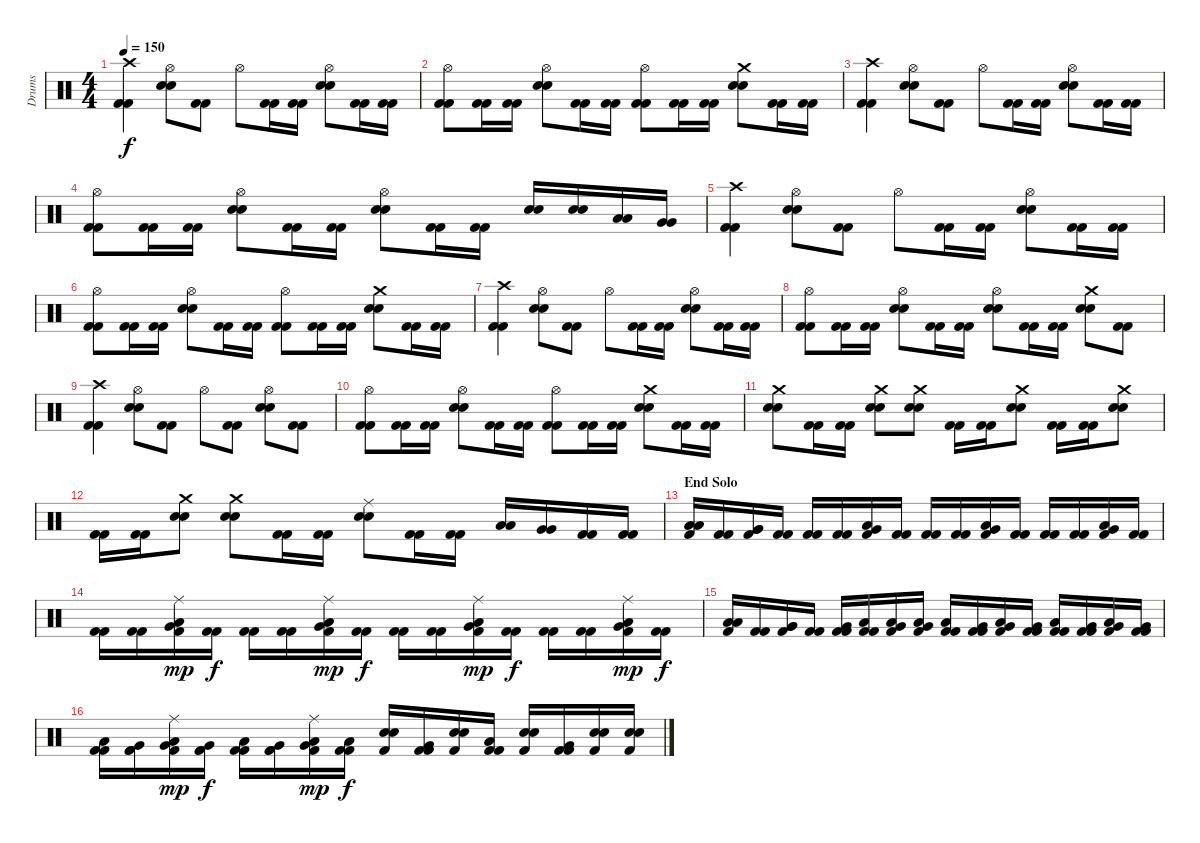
\track ("Drums" "Drums") {instrument percussion}
\staff {score}
\articulation defaults
\ts (4 4)
\tempo 150
\clef neutral
\ks c
("Crash high (hit)" "Kick (hit) 2" "Kick (hit) 2").4{dy f} ("Hi-Hat (open)" "Snare (hit) 2" "Snare (hit) 2").8 ("Kick (hit) 2" "Kick (hit) 2").8 "Hi-Hat (open)".8 ("Kick (hit) 2" "Kick (hit) 2").16 ("Kick (hit) 2" "Kick (hit) 2").16 ("Hi-Hat (open)" "Snare (hit) 2" "Snare (hit) 2").8 ("Kick (hit) 2" "Kick (hit) 2").16 ("Kick (hit) 2" "Kick (hit) 2").16 |
("Hi-Hat (open)" "Kick (hit) 2" "Kick (hit) 2").8 ("Kick (hit) 2" "Kick (hit) 2").16 ("Kick (hit) 2" "Kick (hit) 2").16 ("Hi-Hat (open)" "Snare (hit) 2" "Snare (hit) 2").8 ("Kick (hit) 2" "Kick (hit) 2").16 ("Kick (hit) 2" "Kick (hit) 2").16 ("Hi-Hat (open)" "Kick (hit) 2" "Kick (hit) 2").8 ("Kick (hit) 2" "Kick (hit) 2").16 ("Kick (hit) 2" "Kick (hit) 2").16 ("Crash medium (hit)" "Snare (hit) 2" "Snare (hit) 2").8 ("Kick (hit) 2" "Kick (hit) 2").16 ("Kick (hit) 2" "Kick (hit) 2").16 |
("Crash high (hit)" "Kick (hit) 2" "Kick (hit) 2").4 ("Hi-Hat (open)" "Snare (hit) 2" "Snare (hit) 2").8 ("Kick (hit) 2" "Kick (hit) 2").8 "Hi-Hat (open)".8 ("Kick (hit) 2" "Kick (hit) 2").16 ("Kick (hit) 2" "Kick (hit) 2").16 ("Hi-Hat (open)" "Snare (hit) 2" "Snare (hit) 2").8 ("Kick (hit) 2" "Kick (hit) 2").16 ("Kick (hit) 2" "Kick (hit) 2").16 |
("Hi-Hat (open)" "Kick (hit) 2" "Kick (hit) 2").8 ("Kick (hit) 2" "Kick (hit) 2").16 ("Kick (hit) 2" "Kick (hit) 2").16 ("Hi-Hat (open)" "Snare (hit) 2" "Snare (hit) 2").8 ("Kick (hit) 2" "Kick (hit) 2").16 ("Kick (hit) 2" "Kick (hit) 2").16 ("Hi-Hat (open)" "Snare (hit) 2" "Snare (hit) 2").8 ("Kick (hit) 2" "Kick (hit) 2").16 ("Kick (hit) 2" "Kick (hit) 2").16 ("Snare (hit) 2" "Snare (hit) 2").16 ("Snare (hit) 2" "Snare (hit) 2").16 ("Low Tom (hit)" "Low Tom (hit)").16 ("Very Low Tom (hit)" "Very Low Tom (hit)").16 |
("Crash high (hit)" "Kick (hit) 2" "Kick (hit) 2").4 ("Hi-Hat (open)" "Snare (hit) 2" "Snare (hit) 2").8 ("Kick (hit) 2" "Kick (hit) 2").8 "Hi-Hat (open)".8 ("Kick (hit) 2" "Kick (hit) 2").16 ("Kick (hit) 2" "Kick (hit) 2").16 ("Hi-Hat (open)" "Snare (hit) 2" "Snare (hit) 2").8 ("Kick (hit) 2" "Kick (hit) 2").16 ("Kick (hit) 2" "Kick (hit) 2").16 |
("Hi-Hat (open)" "Kick (hit) 2" "Kick (hit) 2").8 ("Kick (hit) 2" "Kick (hit) 2").16 ("Kick (hit) 2" "Kick (hit) 2").16 ("Hi-Hat (open)" "Snare (hit) 2" "Snare (hit) 2").8 ("Kick (hit) 2" "Kick (hit) 2").16 ("Kick (hit) 2" "Kick (hit) 2").16 ("Hi-Hat (open)" "Kick (hit) 2" "Kick (hit) 2").8 ("Kick (hit) 2" "Kick (hit) 2").16 ("Kick (hit) 2" "Kick (hit) 2").16 ("Crash medium (hit)" "Snare (hit) 2" "Snare (hit) 2").8 ("Kick (hit) 2" "Kick (hit) 2").16 ("Kick (hit) 2" "Kick (hit) 2").16 |
("Crash high (hit)" "Kick (hit) 2" "Kick (hit) 2").4 ("Hi-Hat (open)" "Snare (hit) 2" "Snare (hit) 2").8 ("Kick (hit) 2" "Kick (hit) 2").8 "Hi-Hat (open)".8 ("Kick (hit) 2" "Kick (hit) 2").16 ("Kick (hit) 2" "Kick (hit) 2").16 ("Hi-Hat (open)" "Snare (hit) 2" "Snare (hit) 2").8 ("Kick (hit) 2" "Kick (hit) 2").16 ("Kick (hit) 2" "Kick (hit) 2").16 |
("Hi-Hat (open)" "Kick (hit) 2" "Kick (hit) 2").8 ("Kick (hit) 2" "Kick (hit) 2").16 ("Kick (hit) 2" "Kick (hit) 2").16 ("Hi-Hat (open)" "Snare (hit) 2" "Snare (hit) 2").8 ("Kick (hit) 2" "Kick (hit) 2").16 ("Kick (hit) 2" "Kick (hit) 2").16 ("Hi-Hat (open)" "Snare (hit) 2" "Snare (hit) 2").8 ("Kick (hit) 2" "Kick (hit) 2").16 ("Kick (hit) 2" "Kick (hit) 2").16 ("Crash medium (hit)" "Snare (hit) 2" "Snare (hit) 2").8 ("Kick (hit) 2" "Kick (hit) 2").8 |
("Crash high (hit)" "Kick (hit) 2" "Kick (hit) 2").4 ("Hi-Hat (open)" "Snare (hit) 2" "Snare (hit) 2").8 ("Kick (hit) 2" "Kick (hit) 2").8 "Hi-Hat (open)".8 ("Kick (hit) 2" "Kick (hit) 2").8 ("Hi-Hat (open)" "Snare (hit) 2" "Snare (hit) 2").8 ("Kick (hit) 2" "Kick (hit) 2").8 |
("Hi-Hat (open)" "Kick (hit) 2" "Kick (hit) 2").8 ("Kick (hit) 2" "Kick (hit) 2").16 ("Kick (hit) 2" "Kick (hit) 2").16 ("Hi-Hat (open)" "Snare (hit) 2" "Snare (hit) 2").8 ("Kick (hit) 2" "Kick (hit) 2").16 ("Kick (hit) 2" "Kick (hit) 2").16 ("Hi-Hat (open)" "Kick (hit) 2" "Kick (hit) 2").8 ("Kick (hit) 2" "Kick (hit) 2").16 ("Kick (hit) 2" "Kick (hit) 2").16 ("Crash medium (hit)" "Snare (hit) 2" "Snare (hit) 2").8 ("Kick (hit) 2" "Kick (hit) 2").16 ("Kick (hit) 2" "Kick (hit) 2").16 |
("Crash medium (hit)" "Snare (hit) 2" "Snare (hit) 2").8 ("Kick (hit) 2" "Kick (hit) 2").16 ("Kick (hit) 2" "Kick (hit) 2").16 ("Crash medium (hit)" "Snare (hit) 2" "Snare (hit) 2").8 ("Crash medium (hit)" "Snare (hit) 2" "Snare (hit) 2").8 ("Kick (hit) 2" "Kick (hit) 2").16 ("Kick (hit) 2" "Kick (hit) 2").16 ("Crash medium (hit)" "Snare (hit) 2" "Snare (hit) 2").8 ("Kick (hit) 2" "Kick (hit) 2").16 ("Kick (hit) 2" "Kick (hit) 2").16 ("Crash medium (hit)" "Snare (hit) 2" "Snare (hit) 2").8 |
("Kick (hit) 2" "Kick (hit) 2").16 ("Kick (hit) 2" "Kick (hit) 2").16 ("Crash medium (hit)" "Snare (hit) 2" "Snare (hit) 2").8 ("Crash medium (hit)" "Snare (hit) 2" "Snare (hit) 2").8 ("Kick (hit) 2" "Kick (hit) 2").16 ("Kick (hit) 2" "Kick (hit) 2").16 ("Ride (middle)" "Snare (hit) 2" "Snare (hit) 2").8 ("Kick (hit) 2" "Kick (hit) 2").16 ("Kick (hit) 2" "Kick (hit) 2").16 ("Low Tom (hit)" "Low Tom (hit)").16 ("Very Low Tom (hit)" "Very Low Tom (hit)").16 ("Kick (hit) 2" "Kick (hit) 2").16 ("Kick (hit) 2" "Kick (hit) 2").16 |
\section ("" "End Solo")
("Low Tom (hit)" "Low Tom (hit)" "Kick (hit) 2").16 ("Kick (hit) 2" "Kick (hit) 2").16 ("Very Low Tom (hit)" "Very Low Tom (hit)" "Kick (hit) 2").16 ("Kick (hit) 2" "Kick (hit) 2").16 ("Kick (hit) 2" "Kick (hit) 2").16 ("Kick (hit) 2" "Kick (hit) 2").16 ("Low Tom (hit)" "Very Low Tom (hit)" "Kick (hit) 2").16 ("Kick (hit) 2" "Kick (hit) 2").16 ("Kick (hit) 2" "Kick (hit) 2").16 ("Kick (hit) 2" "Kick (hit) 2").16 ("Low Tom (hit)" "Very Low Tom (hit)" "Kick (hit) 2").16 ("Kick (hit) 2" "Kick (hit) 2").16 ("Kick (hit) 2" "Kick (hit) 2").16 ("Kick (hit) 2" "Kick (hit) 2").16 ("Low Tom (hit)" "Very Low Tom (hit)" "Kick (hit) 2").16 ("Kick (hit) 2" "Kick (hit) 2").16 |
("Kick (hit) 2" "Kick (hit) 2").16 ("Kick (hit) 2" "Kick (hit) 2").16 ("Ride (middle)" "Low Tom (hit)" "Very Low Tom (hit)" "Kick (hit) 2").16{dy mp} ("Kick (hit) 2" "Kick (hit) 2").16{dy f} ("Kick (hit) 2" "Kick (hit) 2").16 ("Kick (hit) 2" "Kick (hit) 2").16 ("Ride (middle)" "Low Tom (hit)" "Very Low Tom (hit)" "Kick (hit) 2").16{dy mp} ("Kick (hit) 2" "Kick (hit) 2").16{dy f} ("Kick (hit) 2" "Kick (hit) 2").16 ("Kick (hit) 2" "Kick (hit) 2").16 ("Ride (middle)" "Low Tom (hit)" "Very Low Tom (hit)" "Kick (hit) 2").16{dy mp} ("Kick (hit) 2" "Kick (hit) 2").16{dy f} ("Kick (hit) 2" "Kick (hit) 2").16 ("Kick (hit) 2" "Kick (hit) 2").16 ("Ride (middle)" "Low Tom (hit)" "Very Low Tom (hit)" "Kick (hit) 2").16{dy mp} ("Kick (hit) 2" "Kick (hit) 2").16{dy f} |
("Low Tom (hit)" "Low Tom (hit)" "Kick (hit) 2").16 ("Kick (hit) 2" "Kick (hit) 2").16 ("Very Low Tom (hit)" "Very Low Tom (hit)" "Kick (hit) 2").16 ("Kick (hit) 2" "Kick (hit) 2").16 ("Very Low Tom (hit)" "Kick (hit) 2" "Kick (hit) 2").16 ("Low Tom (hit)" "Kick (hit) 2" "Kick (hit) 2").16 ("Low Tom (hit)" "Very Low Tom (hit)" "Kick (hit) 2").16 ("Very Low Tom (hit)" "Low Tom (hit)" "Kick (hit) 2").16 ("Low Tom (hit)" "Kick (hit) 2" "Kick (hit) 2").16 ("Very Low Tom (hit)" "Kick (hit) 2" "Kick (hit) 2").16 ("Low Tom (hit)" "Very Low Tom (hit)" "Kick (hit) 2").16 ("Very Low Tom (hit)" "Kick (hit) 2" "Kick (hit) 2").16 ("Low Tom (hit)" "Kick (hit) 2" "Kick (hit) 2").16 ("Very Low Tom (hit)" "Kick (hit) 2" "Kick (hit) 2").16 ("Low Tom (hit)" "Very Low Tom (hit)" "Kick (hit) 2").16 ("Very Low Tom (hit)" "Kick (hit) 2" "Kick (hit) 2").16 |
("Low Tom (hit)" "Kick (hit) 2" "Kick (hit) 2").16 ("Very Low Tom (hit)" "Kick (hit) 2" "Kick (hit) 2").16 ("Ride (middle)" "Low Tom (hit)" "Very Low Tom (hit)" "Kick (hit) 2").16{dy mp} ("Very Low Tom (hit)" "Kick (hit) 2" "Kick (hit) 2").16{dy f} ("Low Tom (hit)" "Kick (hit) 2" "Kick (hit) 2").16 ("Very Low Tom (hit)" "Kick (hit) 2" "Kick (hit) 2").16 ("Ride (middle)" "Low Tom (hit)" "Very Low Tom (hit)" "Kick (hit) 2").16{dy mp} ("Low Tom (hit)" "Kick (hit) 2" "Kick (hit) 2").16{dy f} ("Snare (hit) 2" "Snare (hit) 2" "Kick (hit) 2").16 ("Very Low Tom (hit)" "Kick (hit) 2" "Kick (hit) 2").16 ("Snare (hit) 2" "Snare (hit) 2" "Kick (hit) 2").16 ("Low Tom (hit)" "Kick (hit) 2" "Kick (hit) 2").16 ("Snare (hit) 2" "Snare (hit) 2" "Kick (hit) 2").16 ("Very Low Tom (hit)" "Kick (hit) 2" "Kick (hit) 2").16 ("Snare (hit) 2" "Snare (hit) 2" "Kick (hit) 2").16 ("Snare (hit) 2" "Snare (hit) 2" "Kick (hit) 2").16
